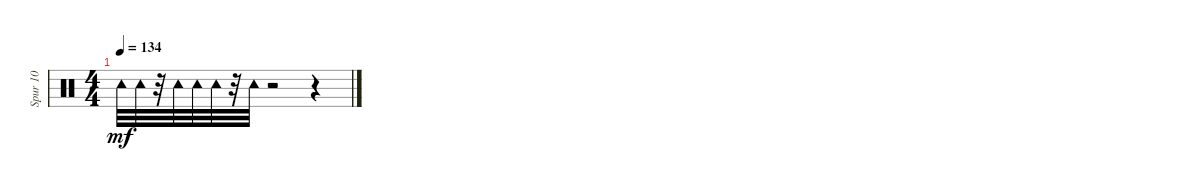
\track ("Spur 10" "Spur 10") {instrument percussion}
\staff {score}
\articulation defaults
\ts (4 4)
\tempo 134
\clef neutral
\ks c "Tambourine (hit)".32{dy mf} "Tambourine (hit)".32
r.32 "Tambourine (hit)".32 "Tambourine (hit)".32 "Tambourine (hit)".32 r.32 "Tambourine (hit)".32 r.2 r.4
